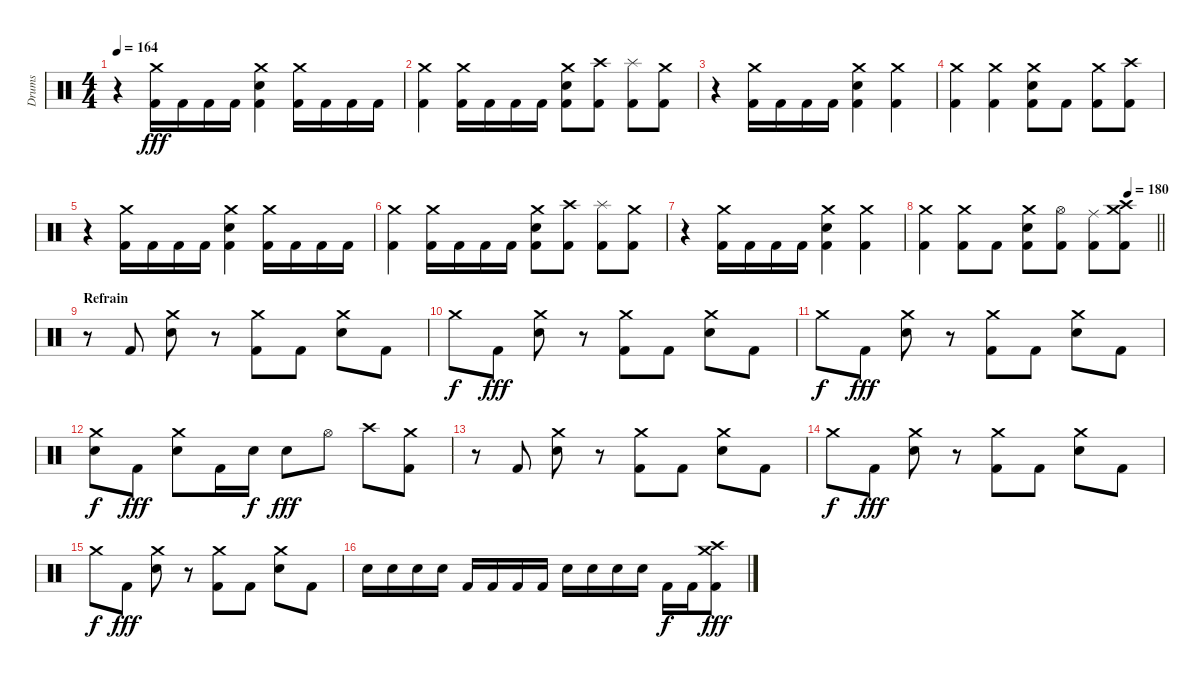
\track ("Drums" "Drums") {instrument percussion}
\staff {score}
\articulation defaults
\ts (4 4)
\tempo 164
\clef neutral
\ks c
r.4{dy fff} ("Crash medium (hit)" "Kick (hit) 2").16 "Kick (hit) 2".16 "Kick (hit) 2".16 "Kick (hit) 2".16 ("Crash medium (hit)" "Electric Snare (hit)" "Kick (hit) 2").4 ("Crash medium (hit)" "Kick (hit) 2").16 "Kick (hit) 2".16 "Kick (hit) 2".16 "Kick (hit) 2".16 |
("Crash medium (hit)" "Kick (hit) 2").4 ("Crash medium (hit)" "Kick (hit) 2").16 "Kick (hit) 2".16 "Kick (hit) 2".16 "Kick (hit) 2".16 ("Crash medium (hit)" "Electric Snare (hit)" "Kick (hit) 2").8 ("Crash high (hit)" "Kick (hit) 2").8 ("Splash (hit)" "Kick (hit) 2").8 ("Crash medium (hit)" "Kick (hit) 2").8 |
r.4 ("Crash medium (hit)" "Kick (hit) 2").16 "Kick (hit) 2".16 "Kick (hit) 2".16 "Kick (hit) 2".16 ("Crash medium (hit)" "Electric Snare (hit)" "Kick (hit) 2").4 ("Crash medium (hit)" "Kick (hit) 2").4 |
("Crash medium (hit)" "Kick (hit) 2").4 ("Crash medium (hit)" "Kick (hit) 2").4 ("Crash medium (hit)" "Electric Snare (hit)" "Kick (hit) 2").8 "Kick (hit) 2".8 ("Crash medium (hit)" "Kick (hit) 2").8 ("Crash high (hit)" "Kick (hit) 2").8 |
r.4 ("Crash medium (hit)" "Kick (hit) 2").16 "Kick (hit) 2".16 "Kick (hit) 2".16 "Kick (hit) 2".16 ("Crash medium (hit)" "Electric Snare (hit)" "Kick (hit) 2").4 ("Crash medium (hit)" "Kick (hit) 2").16 "Kick (hit) 2".16 "Kick (hit) 2".16 "Kick (hit) 2".16 |
("Crash medium (hit)" "Kick (hit) 2").4 ("Crash medium (hit)" "Kick (hit) 2").16 "Kick (hit) 2".16 "Kick (hit) 2".16 "Kick (hit) 2".16 ("Crash medium (hit)" "Electric Snare (hit)" "Kick (hit) 2").8 ("Crash high (hit)" "Kick (hit) 2").8 ("Splash (hit)" "Kick (hit) 2").8 ("Crash medium (hit)" "Kick (hit) 2").8 |
r.4 ("Crash medium (hit)" "Kick (hit) 2").16 "Kick (hit) 2".16 "Kick (hit) 2".16 "Kick (hit) 2".16 ("Crash medium (hit)" "Electric Snare (hit)" "Kick (hit) 2").4 ("Crash medium (hit)" "Kick (hit) 2").4 |
\tempo (180 0.875)
\barLineRight lightlight
("Crash medium (hit)" "Kick (hit) 2").4 ("Crash medium (hit)" "Kick (hit) 2").8 "Kick (hit) 2".8 ("Crash medium (hit)" "Electric Snare (hit)" "Kick (hit) 2").8 ("Hi-Hat (open)" "Kick (hit) 2").8 ("Ride (middle)" "Kick (hit) 2").8 ("Crash medium (hit)" "Crash high (hit)" "Kick (hit) 2").8 |
\section ("" "Refrain")
r.8 "Kick (hit) 2".8 ("Crash medium (hit)" "Electric Snare (hit)").8 r.8 ("Crash medium (hit)" "Kick (hit) 2").8 "Kick (hit) 2".8 ("Crash medium (hit)" "Electric Snare (hit)").8 "Kick (hit) 2".8 |
"Crash medium (hit)".8{dy f} "Kick (hit) 2".8{dy fff} ("Crash medium (hit)" "Electric Snare (hit)").8 r.8 ("Crash medium (hit)" "Kick (hit) 2").8 "Kick (hit) 2".8 ("Crash medium (hit)" "Electric Snare (hit)").8 "Kick (hit) 2".8 |
"Crash medium (hit)".8{dy f} "Kick (hit) 2".8{dy fff} ("Crash medium (hit)" "Electric Snare (hit)").8 r.8 ("Crash medium (hit)" "Kick (hit) 2").8 "Kick (hit) 2".8 ("Crash medium (hit)" "Electric Snare (hit)").8 "Kick (hit) 2".8 |
("Crash medium (hit)" "Electric Snare (hit)").8{dy f} "Kick (hit) 2".8{dy fff} ("Crash medium (hit)" "Electric Snare (hit)").8 "Kick (hit) 2".16 "Electric Snare (hit)".16{dy f} "Electric Snare (hit)".8{dy fff} "Hi-Hat (open)".8 "Crash high (hit)".8 ("Crash medium (hit)" "Kick (hit) 2").8 |
r.8 "Kick (hit) 2".8 ("Crash medium (hit)" "Electric Snare (hit)").8 r.8 ("Crash medium (hit)" "Kick (hit) 2").8 "Kick (hit) 2".8 ("Crash medium (hit)" "Electric Snare (hit)").8 "Kick (hit) 2".8 |
"Crash medium (hit)".8{dy f} "Kick (hit) 2".8{dy fff} ("Crash medium (hit)" "Electric Snare (hit)").8 r.8 ("Crash medium (hit)" "Kick (hit) 2").8 "Kick (hit) 2".8 ("Crash medium (hit)" "Electric Snare (hit)").8 "Kick (hit) 2".8 |
"Crash medium (hit)".8{dy f} "Kick (hit) 2".8{dy fff} ("Crash medium (hit)" "Electric Snare (hit)").8 r.8 ("Crash medium (hit)" "Kick (hit) 2").8 "Kick (hit) 2".8 ("Crash medium (hit)" "Electric Snare (hit)").8 "Kick (hit) 2".8 |
"Electric Snare (hit)".16 "Electric Snare (hit)".16 "Electric Snare (hit)".16 "Electric Snare (hit)".16 "Kick (hit) 2".16 "Kick (hit) 2".16 "Kick (hit) 2".16 "Kick (hit) 2".16 "Electric Snare (hit)".16 "Electric Snare (hit)".16 "Electric Snare (hit)".16 "Electric Snare (hit)".16 "Kick (hit) 2".16{dy f} "Kick (hit) 2".16 ("Crash medium (hit)" "Crash high (hit)" "Kick (hit) 2").8{dy fff}
